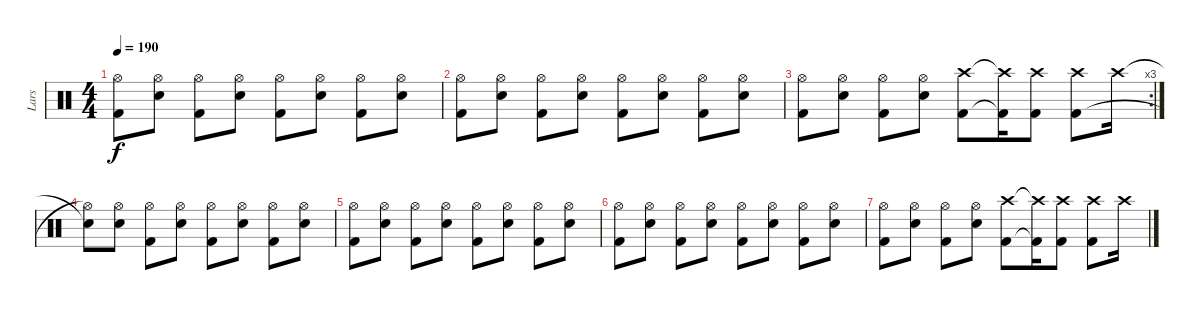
\track ("Lars" "Lars") {instrument percussion}
\staff {score}
\articulation defaults
\ts (4 4)
\tempo 190
\clef neutral
\ks c
("Hi-Hat (open)" "Kick (hit) 2").8{dy f} ("Hi-Hat (open)" "Snare (hit) 2").8 ("Hi-Hat (open)" "Kick (hit) 2").8 ("Hi-Hat (open)" "Snare (hit) 2").8 ("Hi-Hat (open)" "Kick (hit) 2").8 ("Hi-Hat (open)" "Snare (hit) 2").8 ("Hi-Hat (open)" "Kick (hit) 2").8 ("Hi-Hat (open)" "Snare (hit) 2").8 |
("Hi-Hat (open)" "Kick (hit) 2").8 ("Hi-Hat (open)" "Snare (hit) 2").8 ("Hi-Hat (open)" "Kick (hit) 2").8 ("Hi-Hat (open)" "Snare (hit) 2").8 ("Hi-Hat (open)" "Kick (hit) 2").8 ("Hi-Hat (open)" "Snare (hit) 2").8 ("Hi-Hat (open)" "Kick (hit) 2").8 ("Hi-Hat (open)" "Snare (hit) 2").8 |
\rc 3
("Hi-Hat (open)" "Kick (hit) 2").8 ("Hi-Hat (open)" "Snare (hit) 2").8 ("Hi-Hat (open)" "Kick (hit) 2").8 ("Hi-Hat (open)" "Snare (hit) 2").8 ("Crash high (hit)" "Kick (hit) 2").8 ("Crash high (hit)"{t} "Kick (hit) 2"{t}).16 ("Crash high (hit)" "Kick (hit) 2").8 ("Crash high (hit)" "Kick (hit) 2").8 "Crash high (hit)".16 |
("Snare (hit)"{t} "Hi-Hat (open)"{t}).8 ("Hi-Hat (open)" "Snare (hit) 2").8 ("Hi-Hat (open)" "Kick (hit) 2").8 ("Hi-Hat (open)" "Snare (hit) 2").8 ("Hi-Hat (open)" "Kick (hit) 2").8 ("Hi-Hat (open)" "Snare (hit) 2").8 ("Hi-Hat (open)" "Kick (hit) 2").8 ("Hi-Hat (open)" "Snare (hit) 2").8 |
("Hi-Hat (open)" "Kick (hit) 2").8 ("Hi-Hat (open)" "Snare (hit) 2").8 ("Hi-Hat (open)" "Kick (hit) 2").8 ("Hi-Hat (open)" "Snare (hit) 2").8 ("Hi-Hat (open)" "Kick (hit) 2").8 ("Hi-Hat (open)" "Snare (hit) 2").8 ("Hi-Hat (open)" "Kick (hit) 2").8 ("Hi-Hat (open)" "Snare (hit) 2").8 |
("Hi-Hat (open)" "Kick (hit) 2").8 ("Hi-Hat (open)" "Snare (hit) 2").8 ("Hi-Hat (open)" "Kick (hit) 2").8 ("Hi-Hat (open)" "Snare (hit) 2").8 ("Hi-Hat (open)" "Kick (hit) 2").8 ("Hi-Hat (open)" "Snare (hit) 2").8 ("Hi-Hat (open)" "Kick (hit) 2").8 ("Hi-Hat (open)" "Snare (hit) 2").8 |
("Hi-Hat (open)" "Kick (hit) 2").8 ("Hi-Hat (open)" "Snare (hit) 2").8 ("Hi-Hat (open)" "Kick (hit) 2").8 ("Hi-Hat (open)" "Snare (hit) 2").8 ("Crash high (hit)" "Kick (hit) 2").8 ("Crash high (hit)"{t} "Kick (hit) 2"{t}).16 ("Crash high (hit)" "Kick (hit) 2").8 ("Crash high (hit)" "Kick (hit) 2").8 "Crash high (hit)".16
